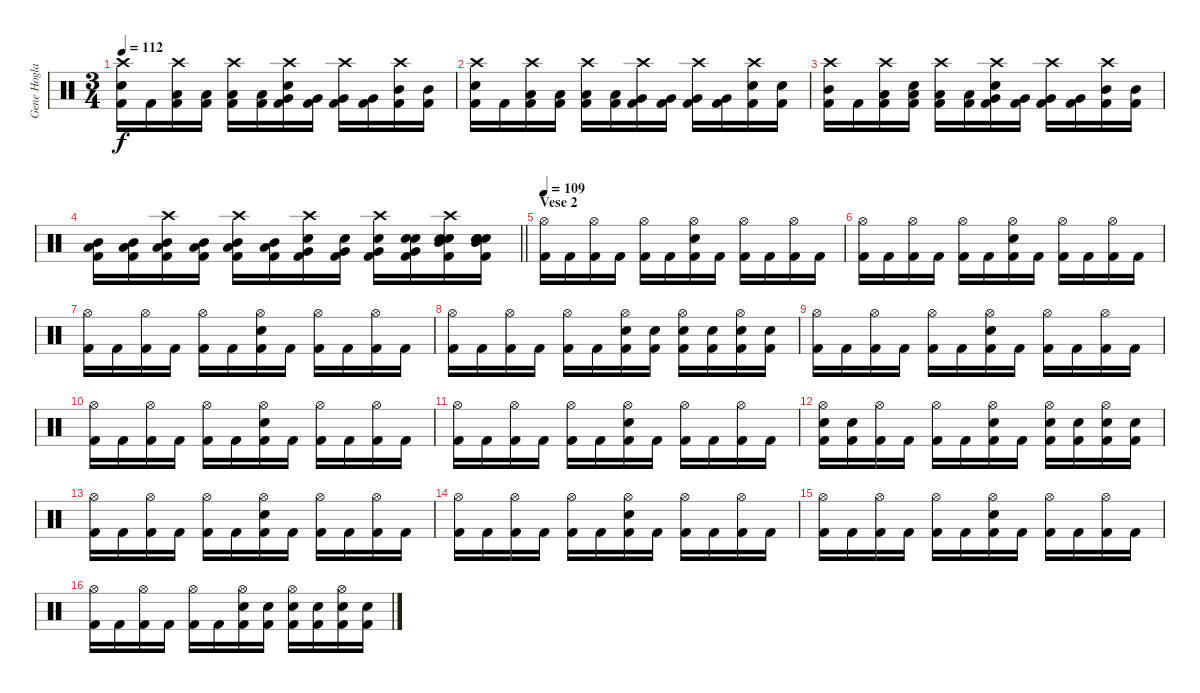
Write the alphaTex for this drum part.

\track ("Gene Hogland" "Gene Hogla") {instrument percussion}
\staff {score}
\articulation defaults
\ts (3 4)
\tempo 112
\clef neutral
\ks c
("Crash high (hit)" "Electric Snare (hit)" "Kick (hit) 2").16{dy f} "Kick (hit) 2".16 ("Crash high (hit)" "Low Tom (hit)" "Kick (hit) 2").16 ("Low Tom (hit)" "Kick (hit) 2").16 ("Crash high (hit)" "Low Tom (hit)" "Kick (hit) 2").16 ("Low Tom (hit)" "Kick (hit) 2").16 ("Crash high (hit)" "Electric Snare (hit)" "Very Low Tom (hit)" "Kick (hit) 2").16 ("Very Low Tom (hit)" "Kick (hit) 2").16 ("Crash high (hit)" "Very Low Tom (hit)" "Kick (hit) 2").16 ("Very Low Tom (hit)" "Kick (hit) 2").16 ("Crash high (hit)" "Mid Tom (hit)" "Kick (hit) 2").16 ("Mid Tom (hit)" "Kick (hit) 2").16 |
("Crash high (hit)" "Electric Snare (hit)" "Kick (hit) 2").16 "Kick (hit) 2".16 ("Crash high (hit)" "Low Tom (hit)" "Kick (hit) 2").16 ("Low Tom (hit)" "Kick (hit) 2").16 ("Crash high (hit)" "Low Tom (hit)" "Kick (hit) 2").16 ("Low Tom (hit)" "Kick (hit) 2").16 ("Crash high (hit)" "Very Low Tom (hit)" "Kick (hit) 2").16 ("Very Low Tom (hit)" "Kick (hit) 2").16 ("Crash high (hit)" "Very Low Tom (hit)" "Kick (hit) 2").16 ("Very Low Tom (hit)" "Kick (hit) 2").16 ("Crash high (hit)" "Electric Snare (hit)" "Kick (hit) 2").16 ("Electric Snare (hit)" "Kick (hit) 2").16 |
("Crash high (hit)" "Mid Tom (hit)" "Kick (hit) 2").16 "Kick (hit) 2".16 ("Crash high (hit)" "Low Tom (hit)" "Kick (hit) 2").16 ("Electric Snare (hit)" "Low Tom (hit)" "Kick (hit) 2").16 ("Crash high (hit)" "Low Tom (hit)" "Kick (hit) 2").16 ("Low Tom (hit)" "Kick (hit) 2").16 ("Crash high (hit)" "Electric Snare (hit)" "Very Low Tom (hit)" "Kick (hit) 2").16 ("Very Low Tom (hit)" "Kick (hit) 2").16 ("Crash high (hit)" "Very Low Tom (hit)" "Kick (hit) 2").16 ("Very Low Tom (hit)" "Kick (hit) 2").16 ("Crash high (hit)" "Mid Tom (hit)" "Kick (hit) 2").16 ("Mid Tom (hit)" "Kick (hit) 2").16 |
\barLineRight lightlight
("Mid Tom (hit)" "Low Tom (hit)" "Kick (hit) 2").16 ("Mid Tom (hit)" "Low Tom (hit)" "Kick (hit) 2").16 ("Crash high (hit)" "Mid Tom (hit)" "Low Tom (hit)" "Kick (hit) 2").16 ("Mid Tom (hit)" "Low Tom (hit)" "Kick (hit) 2").16 ("Crash high (hit)" "Mid Tom (hit)" "Low Tom (hit)" "Kick (hit) 2").16 ("Mid Tom (hit)" "Low Tom (hit)" "Kick (hit) 2").16 ("Crash high (hit)" "Electric Snare (hit)" "Very Low Tom (hit)" "Kick (hit) 2").16 ("Electric Snare (hit)" "Very Low Tom (hit)" "Kick (hit) 2").16 ("Crash high (hit)" "Electric Snare (hit)" "Very Low Tom (hit)" "Kick (hit) 2").16 ("Electric Snare (hit)" "Electric Snare (hit)" "Very Low Tom (hit)" "Kick (hit) 2").16 ("Crash high (hit)" "Electric Snare (hit)" "Electric Snare (hit)" "Mid Tom (hit)" "Kick (hit) 2").16 ("Electric Snare (hit)" "Electric Snare (hit)" "Electric Snare (hit)" "Mid Tom (hit)" "Kick (hit) 2").16 |
\section ("" "Vese 2")
\tempo 109
("Hi-Hat (open)" "Kick (hit) 2").16 "Kick (hit) 2".16 ("Hi-Hat (open)" "Kick (hit) 2").16 "Kick (hit) 2".16 ("Hi-Hat (open)" "Kick (hit) 2").16 "Kick (hit) 2".16 ("Hi-Hat (open)" "Electric Snare (hit)" "Kick (hit) 2").16 "Kick (hit) 2".16 ("Hi-Hat (open)" "Kick (hit) 2").16 "Kick (hit) 2".16 ("Hi-Hat (open)" "Kick (hit) 2").16 "Kick (hit) 2".16 |
("Hi-Hat (open)" "Kick (hit) 2").16 "Kick (hit) 2".16 ("Hi-Hat (open)" "Kick (hit) 2").16 "Kick (hit) 2".16 ("Hi-Hat (open)" "Kick (hit) 2").16 "Kick (hit) 2".16 ("Hi-Hat (open)" "Electric Snare (hit)" "Kick (hit) 2").16 "Kick (hit) 2".16 ("Hi-Hat (open)" "Kick (hit) 2").16 "Kick (hit) 2".16 ("Hi-Hat (open)" "Kick (hit) 2").16 "Kick (hit) 2".16 |
("Hi-Hat (open)" "Kick (hit) 2").16 "Kick (hit) 2".16 ("Hi-Hat (open)" "Kick (hit) 2").16 "Kick (hit) 2".16 ("Hi-Hat (open)" "Kick (hit) 2").16 "Kick (hit) 2".16 ("Hi-Hat (open)" "Electric Snare (hit)" "Kick (hit) 2").16 "Kick (hit) 2".16 ("Hi-Hat (open)" "Kick (hit) 2").16 "Kick (hit) 2".16 ("Hi-Hat (open)" "Kick (hit) 2").16 "Kick (hit) 2".16 |
("Hi-Hat (open)" "Kick (hit) 2").16 "Kick (hit) 2".16 ("Hi-Hat (open)" "Kick (hit) 2").16 "Kick (hit) 2".16 ("Hi-Hat (open)" "Kick (hit) 2").16 "Kick (hit) 2".16 ("Hi-Hat (open)" "Electric Snare (hit)" "Kick (hit) 2").16 ("Electric Snare (hit)" "Kick (hit) 2").16 ("Hi-Hat (open)" "Electric Snare (hit)" "Kick (hit) 2").16 ("Electric Snare (hit)" "Kick (hit) 2").16 ("Hi-Hat (open)" "Electric Snare (hit)" "Kick (hit) 2").16 ("Electric Snare (hit)" "Kick (hit) 2").16 |
("Hi-Hat (open)" "Kick (hit) 2").16 "Kick (hit) 2".16 ("Hi-Hat (open)" "Kick (hit) 2").16 "Kick (hit) 2".16 ("Hi-Hat (open)" "Kick (hit) 2").16 "Kick (hit) 2".16 ("Hi-Hat (open)" "Electric Snare (hit)" "Kick (hit) 2").16 "Kick (hit) 2".16 ("Hi-Hat (open)" "Kick (hit) 2").16 "Kick (hit) 2".16 ("Hi-Hat (open)" "Kick (hit) 2").16 "Kick (hit) 2".16 |
("Hi-Hat (open)" "Kick (hit) 2").16 "Kick (hit) 2".16 ("Hi-Hat (open)" "Kick (hit) 2").16 "Kick (hit) 2".16 ("Hi-Hat (open)" "Kick (hit) 2").16 "Kick (hit) 2".16 ("Hi-Hat (open)" "Electric Snare (hit)" "Kick (hit) 2").16 "Kick (hit) 2".16 ("Hi-Hat (open)" "Kick (hit) 2").16 "Kick (hit) 2".16 ("Hi-Hat (open)" "Kick (hit) 2").16 "Kick (hit) 2".16 |
("Hi-Hat (open)" "Kick (hit) 2").16 "Kick (hit) 2".16 ("Hi-Hat (open)" "Kick (hit) 2").16 "Kick (hit) 2".16 ("Hi-Hat (open)" "Kick (hit) 2").16 "Kick (hit) 2".16 ("Hi-Hat (open)" "Electric Snare (hit)" "Kick (hit) 2").16 "Kick (hit) 2".16 ("Hi-Hat (open)" "Kick (hit) 2").16 "Kick (hit) 2".16 ("Hi-Hat (open)" "Kick (hit) 2").16 "Kick (hit) 2".16 |
("Hi-Hat (open)" "Electric Snare (hit)" "Kick (hit) 2").16 ("Electric Snare (hit)" "Kick (hit) 2").16 ("Hi-Hat (open)" "Kick (hit) 2").16 "Kick (hit) 2".16 ("Hi-Hat (open)" "Kick (hit) 2").16 "Kick (hit) 2".16 ("Hi-Hat (open)" "Electric Snare (hit)" "Kick (hit) 2").16 "Kick (hit) 2".16 ("Hi-Hat (open)" "Electric Snare (hit)" "Kick (hit) 2").16 ("Electric Snare (hit)" "Kick (hit) 2").16 ("Hi-Hat (open)" "Electric Snare (hit)" "Kick (hit) 2").16 ("Electric Snare (hit)" "Kick (hit) 2").16 |
("Hi-Hat (open)" "Kick (hit) 2").16 "Kick (hit) 2".16 ("Hi-Hat (open)" "Kick (hit) 2").16 "Kick (hit) 2".16 ("Hi-Hat (open)" "Kick (hit) 2").16 "Kick (hit) 2".16 ("Hi-Hat (open)" "Electric Snare (hit)" "Kick (hit) 2").16 "Kick (hit) 2".16 ("Hi-Hat (open)" "Kick (hit) 2").16 "Kick (hit) 2".16 ("Hi-Hat (open)" "Kick (hit) 2").16 "Kick (hit) 2".16 |
("Hi-Hat (open)" "Kick (hit) 2").16 "Kick (hit) 2".16 ("Hi-Hat (open)" "Kick (hit) 2").16 "Kick (hit) 2".16 ("Hi-Hat (open)" "Kick (hit) 2").16 "Kick (hit) 2".16 ("Hi-Hat (open)" "Electric Snare (hit)" "Kick (hit) 2").16 "Kick (hit) 2".16 ("Hi-Hat (open)" "Kick (hit) 2").16 "Kick (hit) 2".16 ("Hi-Hat (open)" "Kick (hit) 2").16 "Kick (hit) 2".16 |
("Hi-Hat (open)" "Kick (hit) 2").16 "Kick (hit) 2".16 ("Hi-Hat (open)" "Kick (hit) 2").16 "Kick (hit) 2".16 ("Hi-Hat (open)" "Kick (hit) 2").16 "Kick (hit) 2".16 ("Hi-Hat (open)" "Electric Snare (hit)" "Kick (hit) 2").16 "Kick (hit) 2".16 ("Hi-Hat (open)" "Kick (hit) 2").16 "Kick (hit) 2".16 ("Hi-Hat (open)" "Kick (hit) 2").16 "Kick (hit) 2".16 |
("Hi-Hat (open)" "Kick (hit) 2").16 "Kick (hit) 2".16 ("Hi-Hat (open)" "Kick (hit) 2").16 "Kick (hit) 2".16 ("Hi-Hat (open)" "Kick (hit) 2").16 "Kick (hit) 2".16 ("Hi-Hat (open)" "Electric Snare (hit)" "Kick (hit) 2").16 ("Electric Snare (hit)" "Kick (hit) 2").16 ("Hi-Hat (open)" "Electric Snare (hit)" "Kick (hit) 2").16 ("Electric Snare (hit)" "Kick (hit) 2").16 ("Hi-Hat (open)" "Electric Snare (hit)" "Kick (hit) 2").16 ("Electric Snare (hit)" "Kick (hit) 2").16
